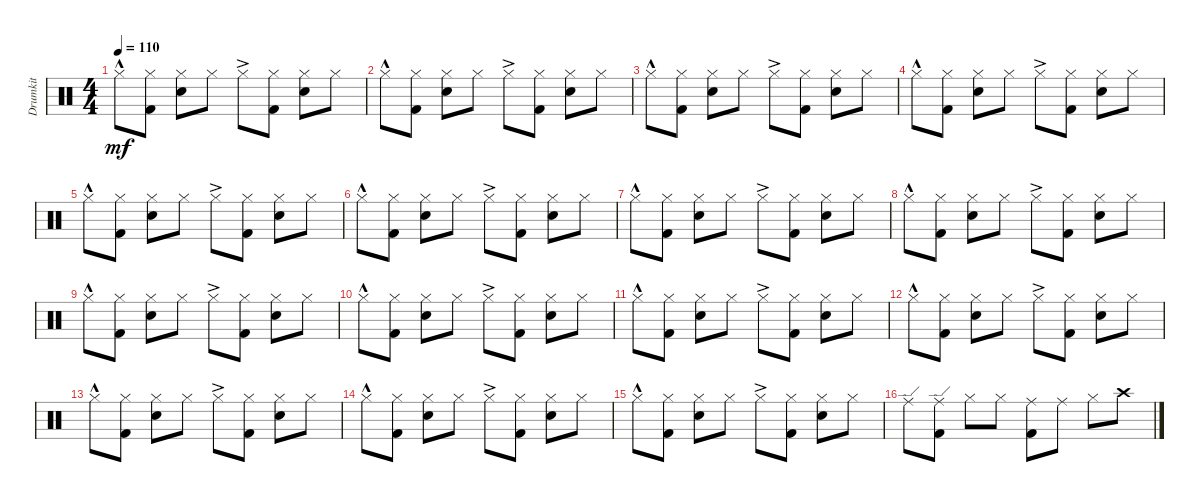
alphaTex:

\track ("Drumkit" "Drumkit") {instrument percussion}
\staff {score}
\articulation defaults
\ts (4 4)
\tempo 110
\clef neutral
\ks c "Hi-Hat (closed)"{hac}.8{dy mf}
("Hi-Hat (closed)" "Kick (hit) 2").8 ("Hi-Hat (closed)" "Snare (hit) 2").8 "Hi-Hat (closed)".8 "Hi-Hat (closed)"{ac}.8 ("Hi-Hat (closed)" "Kick (hit) 2").8 ("Hi-Hat (closed)" "Snare (hit) 2").8 "Hi-Hat (closed)".8 |
"Hi-Hat (closed)"{hac}.8 ("Hi-Hat (closed)" "Kick (hit) 2").8 ("Hi-Hat (closed)" "Snare (hit) 2").8 "Hi-Hat (closed)".8 "Hi-Hat (closed)"{ac}.8 ("Hi-Hat (closed)" "Kick (hit) 2").8 ("Hi-Hat (closed)" "Snare (hit) 2").8 "Hi-Hat (closed)".8 |
"Hi-Hat (closed)"{hac}.8 ("Hi-Hat (closed)" "Kick (hit) 2").8 ("Hi-Hat (closed)" "Snare (hit) 2").8 "Hi-Hat (closed)".8 "Hi-Hat (closed)"{ac}.8 ("Hi-Hat (closed)" "Kick (hit) 2").8 ("Hi-Hat (closed)" "Snare (hit) 2").8 "Hi-Hat (closed)".8 |
"Hi-Hat (closed)"{hac}.8 ("Hi-Hat (closed)" "Kick (hit) 2").8 ("Hi-Hat (closed)" "Snare (hit) 2").8 "Hi-Hat (closed)".8 "Hi-Hat (closed)"{ac}.8 ("Hi-Hat (closed)" "Kick (hit) 2").8 ("Hi-Hat (closed)" "Snare (hit) 2").8 "Hi-Hat (closed)".8 |
"Hi-Hat (closed)"{hac}.8 ("Hi-Hat (closed)" "Kick (hit) 2").8 ("Hi-Hat (closed)" "Snare (hit) 2").8 "Hi-Hat (closed)".8 "Hi-Hat (closed)"{ac}.8 ("Hi-Hat (closed)" "Kick (hit) 2").8 ("Hi-Hat (closed)" "Snare (hit) 2").8 "Hi-Hat (closed)".8 |
"Hi-Hat (closed)"{hac}.8 ("Hi-Hat (closed)" "Kick (hit) 2").8 ("Hi-Hat (closed)" "Snare (hit) 2").8 "Hi-Hat (closed)".8 "Hi-Hat (closed)"{ac}.8 ("Hi-Hat (closed)" "Kick (hit) 2").8 ("Hi-Hat (closed)" "Snare (hit) 2").8 "Hi-Hat (closed)".8 |
"Hi-Hat (closed)"{hac}.8 ("Hi-Hat (closed)" "Kick (hit) 2").8 ("Hi-Hat (closed)" "Snare (hit) 2").8 "Hi-Hat (closed)".8 "Hi-Hat (closed)"{ac}.8 ("Hi-Hat (closed)" "Kick (hit) 2").8 ("Hi-Hat (closed)" "Snare (hit) 2").8 "Hi-Hat (closed)".8 |
"Hi-Hat (closed)"{hac}.8 ("Hi-Hat (closed)" "Kick (hit) 2").8 ("Hi-Hat (closed)" "Snare (hit) 2").8 "Hi-Hat (closed)".8 "Hi-Hat (closed)"{ac}.8 ("Hi-Hat (closed)" "Kick (hit) 2").8 ("Hi-Hat (closed)" "Snare (hit) 2").8 "Hi-Hat (closed)".8 |
"Hi-Hat (closed)"{hac}.8 ("Hi-Hat (closed)" "Kick (hit) 2").8 ("Hi-Hat (closed)" "Snare (hit) 2").8 "Hi-Hat (closed)".8 "Hi-Hat (closed)"{ac}.8 ("Hi-Hat (closed)" "Kick (hit) 2").8 ("Hi-Hat (closed)" "Snare (hit) 2").8 "Hi-Hat (closed)".8 |
"Hi-Hat (closed)"{hac}.8 ("Hi-Hat (closed)" "Kick (hit) 2").8 ("Hi-Hat (closed)" "Snare (hit) 2").8 "Hi-Hat (closed)".8 "Hi-Hat (closed)"{ac}.8 ("Hi-Hat (closed)" "Kick (hit) 2").8 ("Hi-Hat (closed)" "Snare (hit) 2").8 "Hi-Hat (closed)".8 |
"Hi-Hat (closed)"{hac}.8 ("Hi-Hat (closed)" "Kick (hit) 2").8 ("Hi-Hat (closed)" "Snare (hit) 2").8 "Hi-Hat (closed)".8 "Hi-Hat (closed)"{ac}.8 ("Hi-Hat (closed)" "Kick (hit) 2").8 ("Hi-Hat (closed)" "Snare (hit) 2").8 "Hi-Hat (closed)".8 |
"Hi-Hat (closed)"{hac}.8 ("Hi-Hat (closed)" "Kick (hit) 2").8 ("Hi-Hat (closed)" "Snare (hit) 2").8 "Hi-Hat (closed)".8 "Hi-Hat (closed)"{ac}.8 ("Hi-Hat (closed)" "Kick (hit) 2").8 ("Hi-Hat (closed)" "Snare (hit) 2").8 "Hi-Hat (closed)".8 |
"Hi-Hat (closed)"{hac}.8 ("Hi-Hat (closed)" "Kick (hit) 2").8 ("Hi-Hat (closed)" "Snare (hit) 2").8 "Hi-Hat (closed)".8 "Hi-Hat (closed)"{ac}.8 ("Hi-Hat (closed)" "Kick (hit) 2").8 ("Hi-Hat (closed)" "Snare (hit) 2").8 "Hi-Hat (closed)".8 |
"Hi-Hat (closed)"{hac}.8 ("Hi-Hat (closed)" "Kick (hit) 2").8 ("Hi-Hat (closed)" "Snare (hit) 2").8 "Hi-Hat (closed)".8 "Hi-Hat (closed)"{ac}.8 ("Hi-Hat (closed)" "Kick (hit) 2").8 ("Hi-Hat (closed)" "Snare (hit) 2").8 "Hi-Hat (closed)".8 |
"Hi-Hat (closed)"{hac}.8 ("Hi-Hat (closed)" "Kick (hit) 2").8 ("Hi-Hat (closed)" "Snare (hit) 2").8 "Hi-Hat (closed)".8 "Hi-Hat (closed)"{ac}.8 ("Hi-Hat (closed)" "Kick (hit) 2").8 ("Hi-Hat (closed)" "Snare (hit) 2").8 "Hi-Hat (closed)".8 |
"Ride (edge)".8 ("Ride (edge)" "Kick (hit) 2").8 "Hi-Hat (closed)".8 "Hi-Hat (closed)".8 ("Ride (middle)" "Kick (hit) 2").8 "Ride (middle)".8 "Hi-Hat (closed)".8 "Crash high (hit)".8
